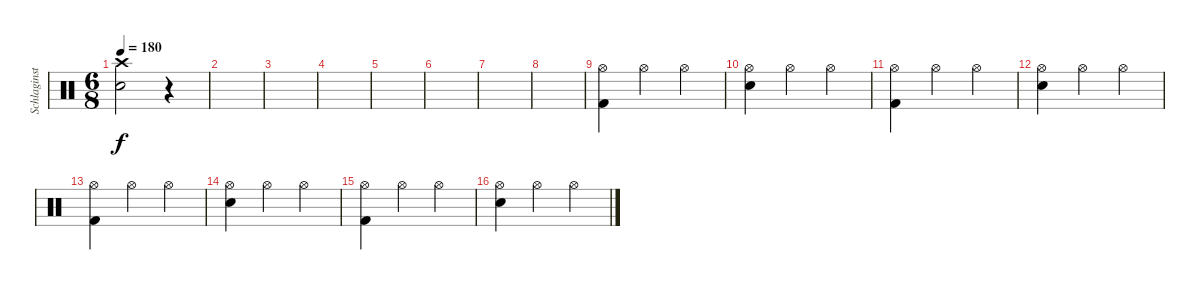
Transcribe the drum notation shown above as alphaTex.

\track ("Schlaginstrumente - Auswahl" "Schlaginst") {instrument percussion}
\staff {score}
\articulation defaults
\ts (6 8)
\tempo 180
\clef neutral
\ks c
("Crash high (hit)" "Snare (hit) 2").2{dy f} r.4 |
|
|
|
|
|
|
|
("Kick (hit) 2" "Hi-Hat (open)").4 "Hi-Hat (open)".4 "Hi-Hat (open)".4 |
("Snare (hit) 2" "Hi-Hat (open)").4 "Hi-Hat (open)".4 "Hi-Hat (open)".4 |
("Kick (hit) 2" "Hi-Hat (open)").4 "Hi-Hat (open)".4 "Hi-Hat (open)".4 |
("Snare (hit) 2" "Hi-Hat (open)").4 "Hi-Hat (open)".4 "Hi-Hat (open)".4 |
("Kick (hit) 2" "Hi-Hat (open)").4 "Hi-Hat (open)".4 "Hi-Hat (open)".4 |
("Snare (hit) 2" "Hi-Hat (open)").4 "Hi-Hat (open)".4 "Hi-Hat (open)".4 |
("Kick (hit) 2" "Hi-Hat (open)").4 "Hi-Hat (open)".4 "Hi-Hat (open)".4 |
("Snare (hit) 2" "Hi-Hat (open)").4 "Hi-Hat (open)".4 "Hi-Hat (open)".4
